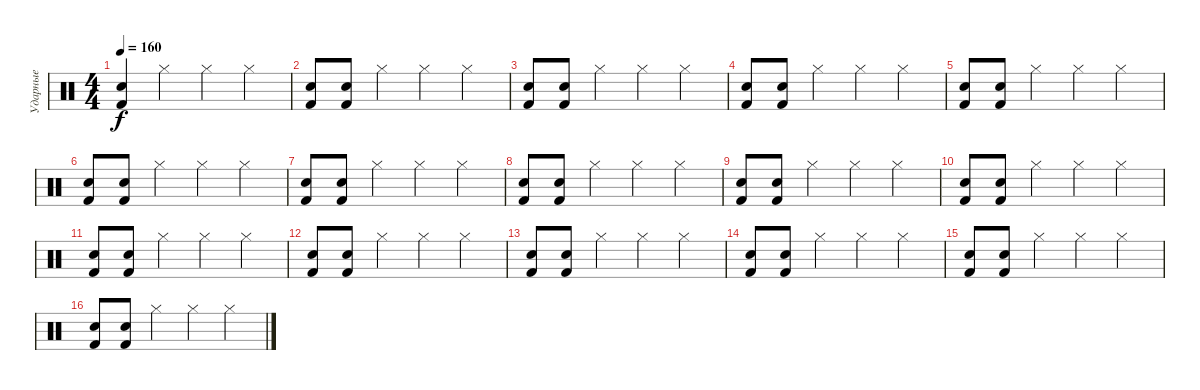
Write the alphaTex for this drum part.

\track ("Ударные" "Ударные") {instrument percussion}
\staff {score}
\articulation defaults
\ts (4 4)
\tempo 160
\clef neutral
\ks c
("Electric Snare (hit)" "Kick (hit) 2").4{dy f} "Hi-Hat (closed)".4 "Hi-Hat (closed)".4 "Hi-Hat (closed)".4 |
("Electric Snare (hit)" "Kick (hit) 2").8 ("Electric Snare (hit)" "Kick (hit) 2").8 "Hi-Hat (closed)".4 "Hi-Hat (closed)".4 "Hi-Hat (closed)".4 |
("Electric Snare (hit)" "Kick (hit) 2").8 ("Electric Snare (hit)" "Kick (hit) 2").8 "Hi-Hat (closed)".4 "Hi-Hat (closed)".4 "Hi-Hat (closed)".4 |
("Electric Snare (hit)" "Kick (hit) 2").8 ("Electric Snare (hit)" "Kick (hit) 2").8 "Hi-Hat (closed)".4 "Hi-Hat (closed)".4 "Hi-Hat (closed)".4 |
("Electric Snare (hit)" "Kick (hit) 2").8 ("Electric Snare (hit)" "Kick (hit) 2").8 "Hi-Hat (closed)".4 "Hi-Hat (closed)".4 "Hi-Hat (closed)".4 |
("Electric Snare (hit)" "Kick (hit) 2").8 ("Electric Snare (hit)" "Kick (hit) 2").8 "Hi-Hat (closed)".4 "Hi-Hat (closed)".4 "Hi-Hat (closed)".4 |
("Electric Snare (hit)" "Kick (hit) 2").8 ("Electric Snare (hit)" "Kick (hit) 2").8 "Hi-Hat (closed)".4 "Hi-Hat (closed)".4 "Hi-Hat (closed)".4 |
("Electric Snare (hit)" "Kick (hit) 2").8 ("Electric Snare (hit)" "Kick (hit) 2").8 "Hi-Hat (closed)".4 "Hi-Hat (closed)".4 "Hi-Hat (closed)".4 |
("Electric Snare (hit)" "Kick (hit) 2").8 ("Electric Snare (hit)" "Kick (hit) 2").8 "Hi-Hat (closed)".4 "Hi-Hat (closed)".4 "Hi-Hat (closed)".4 |
("Electric Snare (hit)" "Kick (hit) 2").8 ("Electric Snare (hit)" "Kick (hit) 2").8 "Hi-Hat (closed)".4 "Hi-Hat (closed)".4 "Hi-Hat (closed)".4 |
("Electric Snare (hit)" "Kick (hit) 2").8 ("Electric Snare (hit)" "Kick (hit) 2").8 "Hi-Hat (closed)".4 "Hi-Hat (closed)".4 "Hi-Hat (closed)".4 |
("Electric Snare (hit)" "Kick (hit) 2").8 ("Electric Snare (hit)" "Kick (hit) 2").8 "Hi-Hat (closed)".4 "Hi-Hat (closed)".4 "Hi-Hat (closed)".4 |
("Electric Snare (hit)" "Kick (hit) 2").8 ("Electric Snare (hit)" "Kick (hit) 2").8 "Hi-Hat (closed)".4 "Hi-Hat (closed)".4 "Hi-Hat (closed)".4 |
("Electric Snare (hit)" "Kick (hit) 2").8 ("Electric Snare (hit)" "Kick (hit) 2").8 "Hi-Hat (closed)".4 "Hi-Hat (closed)".4 "Hi-Hat (closed)".4 |
("Electric Snare (hit)" "Kick (hit) 2").8 ("Electric Snare (hit)" "Kick (hit) 2").8 "Hi-Hat (closed)".4 "Hi-Hat (closed)".4 "Hi-Hat (closed)".4 |
("Electric Snare (hit)" "Kick (hit) 2").8 ("Electric Snare (hit)" "Kick (hit) 2").8 "Hi-Hat (closed)".4 "Hi-Hat (closed)".4 "Hi-Hat (closed)".4
